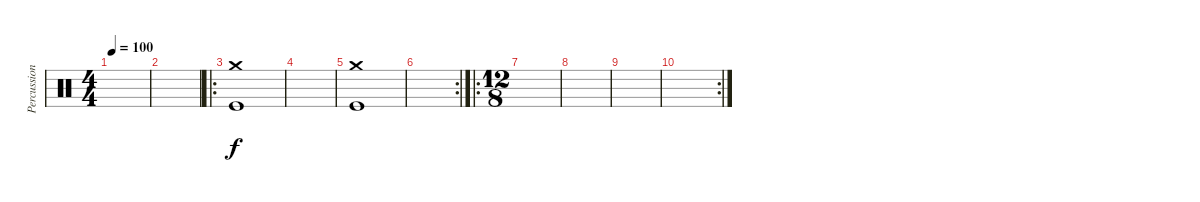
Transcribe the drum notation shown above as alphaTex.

\track ("Percussion" "Percussion") {instrument percussion}
\staff {score}
\articulation defaults
\ts (4 4)
\tempo 100
\clef neutral
\ks c
|
|
\ro
("Crash medium (hit)" "Kick (hit)").1 |
|
("Crash medium (hit)" "Kick (hit)").1 |
\rc 2
|
\ro
\ts (12 8)
|
|
|
\rc 2
